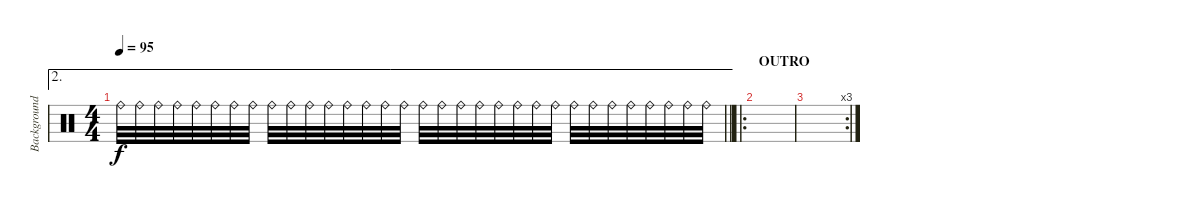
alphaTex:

\track ("Background" "Background") {instrument percussion}
\staff {score}
\articulation defaults
\ae 2
\ts (4 4)
\tempo 95
\clef neutral
\barLineRight lightlight
\ks c "Ride (bell)".32{dy f} "Ride (bell)".32 "Ride (bell)".32 "Ride (bell)".32 "Ride (bell)".32 "Ride (bell)".32 "Ride (bell)".32 "Ride (bell)".32 "Ride (bell)".32 "Ride (bell)".32 "Ride (bell)".32 "Ride (bell)".32 "Ride (bell)".32 "Ride (bell)".32 "Ride (bell)".32 "Ride (bell)".32 "Ride (bell)".32 "Ride (bell)".32 "Ride (bell)".32 "Ride (bell)".32 "Ride (bell)".32 "Ride (bell)".32 "Ride (bell)".32 "Ride (bell)".32 "Ride (bell)".32 "Ride (bell)".32 "Ride (bell)".32 "Ride (bell)".32 "Ride (bell)".32 "Ride (bell)".32 "Ride (bell)".32 "Ride (bell)".32
|
\ro
\section ("" "OUTRO")
|
\rc 3
